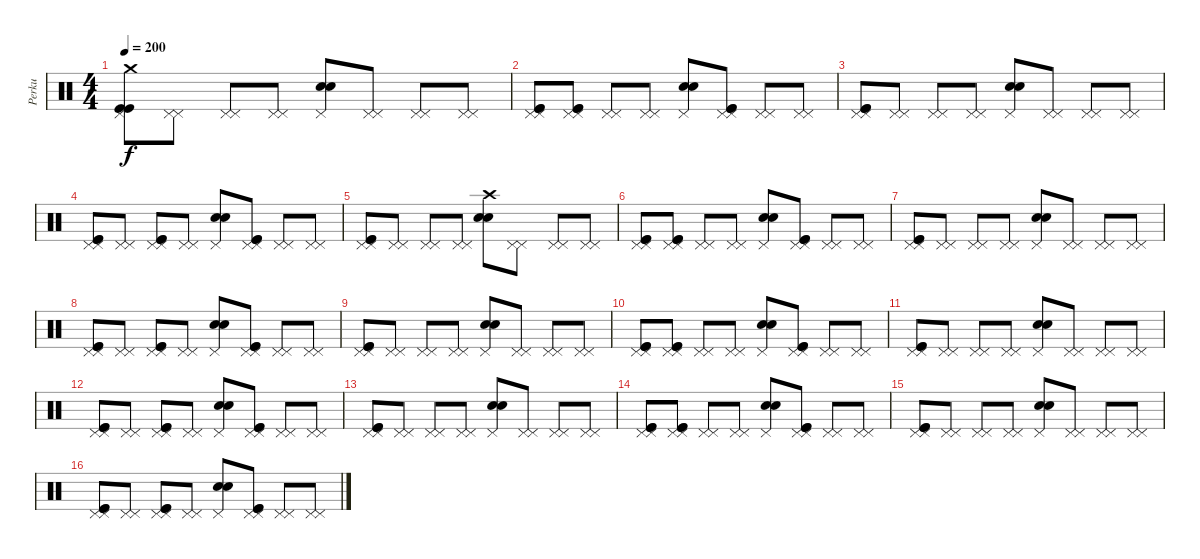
\track ("Perku" "Perku") {instrument percussion}
\staff {score}
\articulation defaults
\ts (4 4)
\tempo 200
\clef neutral
\ks c
("Crash medium (hit)" "Pedal Hi-Hat (hit)" "Kick (hit)" "Kick (hit)").8{dy f} ("Pedal Hi-Hat (hit)" "Pedal Hi-Hat (hit)").8 ("Pedal Hi-Hat (hit)" "Pedal Hi-Hat (hit)").8 ("Pedal Hi-Hat (hit)" "Pedal Hi-Hat (hit)").8 ("Pedal Hi-Hat (hit)" "Electric Snare (hit)" "Electric Snare (hit)").8 ("Pedal Hi-Hat (hit)" "Pedal Hi-Hat (hit)").8 ("Pedal Hi-Hat (hit)" "Pedal Hi-Hat (hit)").8 ("Pedal Hi-Hat (hit)" "Pedal Hi-Hat (hit)").8 |
("Pedal Hi-Hat (hit)" "Pedal Hi-Hat (hit)" "Kick (hit)" "Kick (hit)").8 ("Pedal Hi-Hat (hit)" "Pedal Hi-Hat (hit)" "Kick (hit)" "Kick (hit)").8 ("Pedal Hi-Hat (hit)" "Pedal Hi-Hat (hit)").8 ("Pedal Hi-Hat (hit)" "Pedal Hi-Hat (hit)").8 ("Pedal Hi-Hat (hit)" "Electric Snare (hit)" "Electric Snare (hit)").8 ("Pedal Hi-Hat (hit)" "Pedal Hi-Hat (hit)" "Kick (hit)" "Kick (hit)").8 ("Pedal Hi-Hat (hit)" "Pedal Hi-Hat (hit)").8 ("Pedal Hi-Hat (hit)" "Pedal Hi-Hat (hit)").8 |
("Pedal Hi-Hat (hit)" "Pedal Hi-Hat (hit)" "Kick (hit)" "Kick (hit)").8 ("Pedal Hi-Hat (hit)" "Pedal Hi-Hat (hit)").8 ("Pedal Hi-Hat (hit)" "Pedal Hi-Hat (hit)").8 ("Pedal Hi-Hat (hit)" "Pedal Hi-Hat (hit)").8 ("Pedal Hi-Hat (hit)" "Electric Snare (hit)" "Electric Snare (hit)").8 ("Pedal Hi-Hat (hit)" "Pedal Hi-Hat (hit)").8 ("Pedal Hi-Hat (hit)" "Pedal Hi-Hat (hit)").8 ("Pedal Hi-Hat (hit)" "Pedal Hi-Hat (hit)").8 |
("Pedal Hi-Hat (hit)" "Pedal Hi-Hat (hit)" "Kick (hit)" "Kick (hit)").8 ("Pedal Hi-Hat (hit)" "Pedal Hi-Hat (hit)").8 ("Pedal Hi-Hat (hit)" "Pedal Hi-Hat (hit)" "Kick (hit)" "Kick (hit)").8 ("Pedal Hi-Hat (hit)" "Pedal Hi-Hat (hit)").8 ("Pedal Hi-Hat (hit)" "Electric Snare (hit)" "Electric Snare (hit)").8 ("Pedal Hi-Hat (hit)" "Pedal Hi-Hat (hit)" "Kick (hit)" "Kick (hit)").8 ("Pedal Hi-Hat (hit)" "Pedal Hi-Hat (hit)").8 ("Pedal Hi-Hat (hit)" "Pedal Hi-Hat (hit)").8 |
("Pedal Hi-Hat (hit)" "Pedal Hi-Hat (hit)" "Kick (hit)" "Kick (hit)").8 ("Pedal Hi-Hat (hit)" "Pedal Hi-Hat (hit)").8 ("Pedal Hi-Hat (hit)" "Pedal Hi-Hat (hit)").8 ("Pedal Hi-Hat (hit)" "Pedal Hi-Hat (hit)").8 ("Crash high (hit)" "Electric Snare (hit)" "Electric Snare (hit)").8 ("Pedal Hi-Hat (hit)" "Pedal Hi-Hat (hit)").8 ("Pedal Hi-Hat (hit)" "Pedal Hi-Hat (hit)").8 ("Pedal Hi-Hat (hit)" "Pedal Hi-Hat (hit)").8 |
("Pedal Hi-Hat (hit)" "Pedal Hi-Hat (hit)" "Kick (hit)" "Kick (hit)").8 ("Pedal Hi-Hat (hit)" "Pedal Hi-Hat (hit)" "Kick (hit)" "Kick (hit)").8 ("Pedal Hi-Hat (hit)" "Pedal Hi-Hat (hit)").8 ("Pedal Hi-Hat (hit)" "Pedal Hi-Hat (hit)").8 ("Pedal Hi-Hat (hit)" "Electric Snare (hit)" "Electric Snare (hit)").8 ("Pedal Hi-Hat (hit)" "Pedal Hi-Hat (hit)" "Kick (hit)" "Kick (hit)").8 ("Pedal Hi-Hat (hit)" "Pedal Hi-Hat (hit)").8 ("Pedal Hi-Hat (hit)" "Pedal Hi-Hat (hit)").8 |
("Pedal Hi-Hat (hit)" "Pedal Hi-Hat (hit)" "Kick (hit)" "Kick (hit)").8 ("Pedal Hi-Hat (hit)" "Pedal Hi-Hat (hit)").8 ("Pedal Hi-Hat (hit)" "Pedal Hi-Hat (hit)").8 ("Pedal Hi-Hat (hit)" "Pedal Hi-Hat (hit)").8 ("Pedal Hi-Hat (hit)" "Electric Snare (hit)" "Electric Snare (hit)").8 ("Pedal Hi-Hat (hit)" "Pedal Hi-Hat (hit)").8 ("Pedal Hi-Hat (hit)" "Pedal Hi-Hat (hit)").8 ("Pedal Hi-Hat (hit)" "Pedal Hi-Hat (hit)").8 |
("Pedal Hi-Hat (hit)" "Pedal Hi-Hat (hit)" "Kick (hit)" "Kick (hit)").8 ("Pedal Hi-Hat (hit)" "Pedal Hi-Hat (hit)").8 ("Pedal Hi-Hat (hit)" "Pedal Hi-Hat (hit)" "Kick (hit)" "Kick (hit)").8 ("Pedal Hi-Hat (hit)" "Pedal Hi-Hat (hit)").8 ("Pedal Hi-Hat (hit)" "Electric Snare (hit)" "Electric Snare (hit)").8 ("Pedal Hi-Hat (hit)" "Pedal Hi-Hat (hit)" "Kick (hit)" "Kick (hit)").8 ("Pedal Hi-Hat (hit)" "Pedal Hi-Hat (hit)").8 ("Pedal Hi-Hat (hit)" "Pedal Hi-Hat (hit)").8 |
("Pedal Hi-Hat (hit)" "Pedal Hi-Hat (hit)" "Kick (hit)" "Kick (hit)").8 ("Pedal Hi-Hat (hit)" "Pedal Hi-Hat (hit)").8 ("Pedal Hi-Hat (hit)" "Pedal Hi-Hat (hit)").8 ("Pedal Hi-Hat (hit)" "Pedal Hi-Hat (hit)").8 ("Pedal Hi-Hat (hit)" "Electric Snare (hit)" "Electric Snare (hit)").8 ("Pedal Hi-Hat (hit)" "Pedal Hi-Hat (hit)").8 ("Pedal Hi-Hat (hit)" "Pedal Hi-Hat (hit)").8 ("Pedal Hi-Hat (hit)" "Pedal Hi-Hat (hit)").8 |
("Pedal Hi-Hat (hit)" "Pedal Hi-Hat (hit)" "Kick (hit)" "Kick (hit)").8 ("Pedal Hi-Hat (hit)" "Pedal Hi-Hat (hit)" "Kick (hit)" "Kick (hit)").8 ("Pedal Hi-Hat (hit)" "Pedal Hi-Hat (hit)").8 ("Pedal Hi-Hat (hit)" "Pedal Hi-Hat (hit)").8 ("Pedal Hi-Hat (hit)" "Electric Snare (hit)" "Electric Snare (hit)").8 ("Pedal Hi-Hat (hit)" "Pedal Hi-Hat (hit)" "Kick (hit)" "Kick (hit)").8 ("Pedal Hi-Hat (hit)" "Pedal Hi-Hat (hit)").8 ("Pedal Hi-Hat (hit)" "Pedal Hi-Hat (hit)").8 |
("Pedal Hi-Hat (hit)" "Pedal Hi-Hat (hit)" "Kick (hit)" "Kick (hit)").8 ("Pedal Hi-Hat (hit)" "Pedal Hi-Hat (hit)").8 ("Pedal Hi-Hat (hit)" "Pedal Hi-Hat (hit)").8 ("Pedal Hi-Hat (hit)" "Pedal Hi-Hat (hit)").8 ("Pedal Hi-Hat (hit)" "Electric Snare (hit)" "Electric Snare (hit)").8 ("Pedal Hi-Hat (hit)" "Pedal Hi-Hat (hit)").8 ("Pedal Hi-Hat (hit)" "Pedal Hi-Hat (hit)").8 ("Pedal Hi-Hat (hit)" "Pedal Hi-Hat (hit)").8 |
("Pedal Hi-Hat (hit)" "Pedal Hi-Hat (hit)" "Kick (hit)" "Kick (hit)").8 ("Pedal Hi-Hat (hit)" "Pedal Hi-Hat (hit)").8 ("Pedal Hi-Hat (hit)" "Pedal Hi-Hat (hit)" "Kick (hit)" "Kick (hit)").8 ("Pedal Hi-Hat (hit)" "Pedal Hi-Hat (hit)").8 ("Pedal Hi-Hat (hit)" "Electric Snare (hit)" "Electric Snare (hit)").8 ("Pedal Hi-Hat (hit)" "Pedal Hi-Hat (hit)" "Kick (hit)" "Kick (hit)").8 ("Pedal Hi-Hat (hit)" "Pedal Hi-Hat (hit)").8 ("Pedal Hi-Hat (hit)" "Pedal Hi-Hat (hit)").8 |
("Pedal Hi-Hat (hit)" "Pedal Hi-Hat (hit)" "Kick (hit)" "Kick (hit)").8 ("Pedal Hi-Hat (hit)" "Pedal Hi-Hat (hit)").8 ("Pedal Hi-Hat (hit)" "Pedal Hi-Hat (hit)").8 ("Pedal Hi-Hat (hit)" "Pedal Hi-Hat (hit)").8 ("Pedal Hi-Hat (hit)" "Electric Snare (hit)" "Electric Snare (hit)").8 ("Pedal Hi-Hat (hit)" "Pedal Hi-Hat (hit)").8 ("Pedal Hi-Hat (hit)" "Pedal Hi-Hat (hit)").8 ("Pedal Hi-Hat (hit)" "Pedal Hi-Hat (hit)").8 |
("Pedal Hi-Hat (hit)" "Pedal Hi-Hat (hit)" "Kick (hit)" "Kick (hit)").8 ("Pedal Hi-Hat (hit)" "Pedal Hi-Hat (hit)" "Kick (hit)" "Kick (hit)").8 ("Pedal Hi-Hat (hit)" "Pedal Hi-Hat (hit)").8 ("Pedal Hi-Hat (hit)" "Pedal Hi-Hat (hit)").8 ("Pedal Hi-Hat (hit)" "Electric Snare (hit)" "Electric Snare (hit)").8 ("Pedal Hi-Hat (hit)" "Pedal Hi-Hat (hit)" "Kick (hit)" "Kick (hit)").8 ("Pedal Hi-Hat (hit)" "Pedal Hi-Hat (hit)").8 ("Pedal Hi-Hat (hit)" "Pedal Hi-Hat (hit)").8 |
("Pedal Hi-Hat (hit)" "Pedal Hi-Hat (hit)" "Kick (hit)" "Kick (hit)").8 ("Pedal Hi-Hat (hit)" "Pedal Hi-Hat (hit)").8 ("Pedal Hi-Hat (hit)" "Pedal Hi-Hat (hit)").8 ("Pedal Hi-Hat (hit)" "Pedal Hi-Hat (hit)").8 ("Pedal Hi-Hat (hit)" "Electric Snare (hit)" "Electric Snare (hit)").8 ("Pedal Hi-Hat (hit)" "Pedal Hi-Hat (hit)").8 ("Pedal Hi-Hat (hit)" "Pedal Hi-Hat (hit)").8 ("Pedal Hi-Hat (hit)" "Pedal Hi-Hat (hit)").8 |
("Pedal Hi-Hat (hit)" "Pedal Hi-Hat (hit)" "Kick (hit)" "Kick (hit)").8 ("Pedal Hi-Hat (hit)" "Pedal Hi-Hat (hit)").8 ("Pedal Hi-Hat (hit)" "Pedal Hi-Hat (hit)" "Kick (hit)" "Kick (hit)").8 ("Pedal Hi-Hat (hit)" "Pedal Hi-Hat (hit)").8 ("Pedal Hi-Hat (hit)" "Electric Snare (hit)" "Electric Snare (hit)").8 ("Pedal Hi-Hat (hit)" "Pedal Hi-Hat (hit)" "Kick (hit)" "Kick (hit)").8 ("Pedal Hi-Hat (hit)" "Pedal Hi-Hat (hit)").8 ("Pedal Hi-Hat (hit)" "Pedal Hi-Hat (hit)").8
